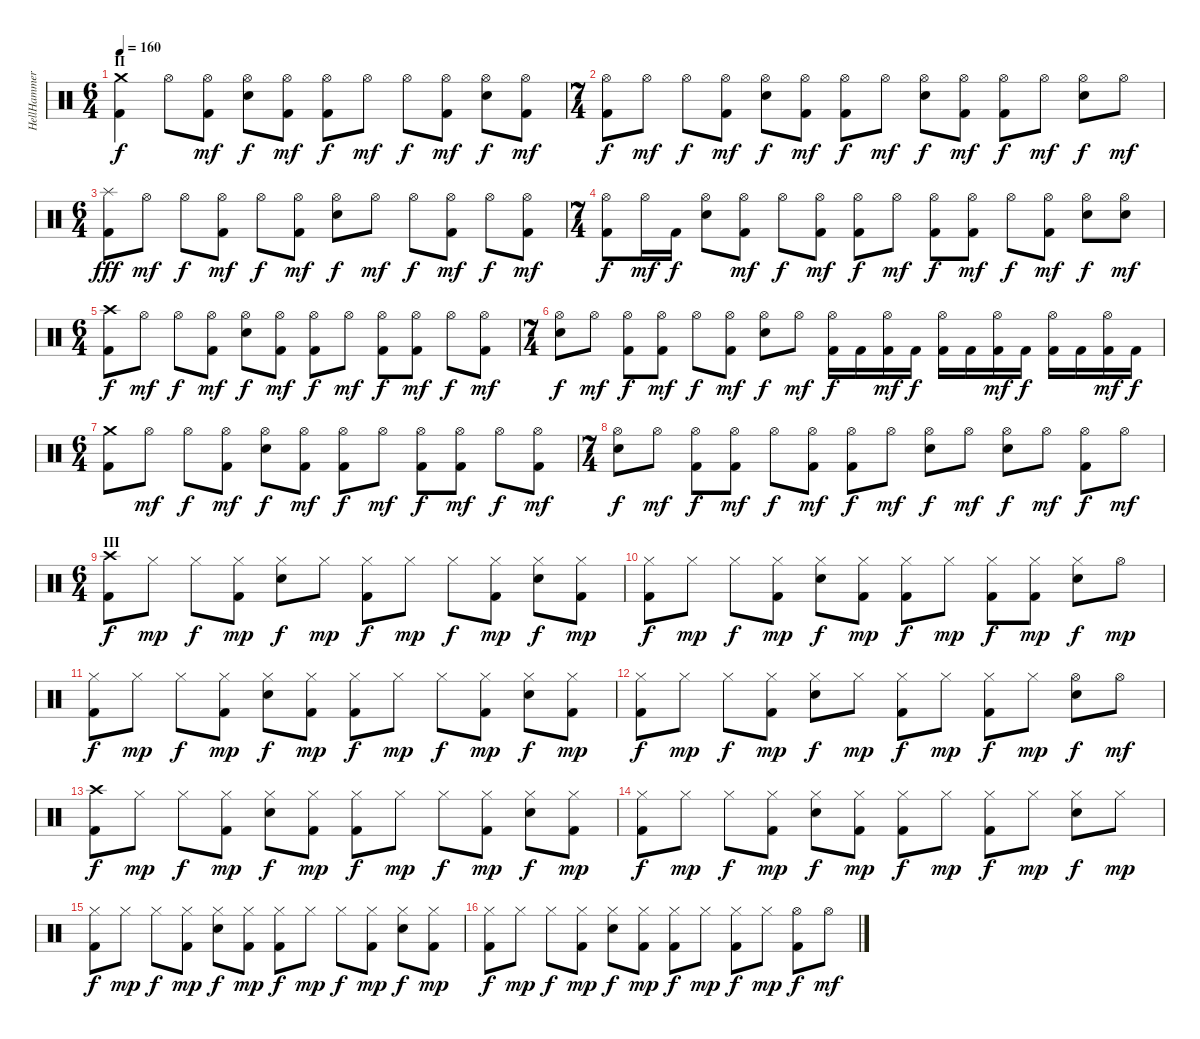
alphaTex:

\track ("HellHammer" "HellHammer") {instrument percussion}
\staff {score}
\articulation defaults
\ts (6 4)
\section ("" "II")
\tempo 160
\clef neutral
\ks c
("Kick (hit) 2" "Crash medium (hit)").4{dy f} "Hi-Hat (open)".8 ("Kick (hit) 2" "Hi-Hat (open)").8{dy mf} ("Electric Snare (hit)" "Hi-Hat (open)").8{dy f} ("Kick (hit) 2" "Hi-Hat (open)").8{dy mf} ("Kick (hit) 2" "Hi-Hat (open)").8{dy f} "Hi-Hat (open)".8{dy mf} "Hi-Hat (open)".8{dy f} ("Kick (hit) 2" "Hi-Hat (open)").8{dy mf} ("Electric Snare (hit)" "Hi-Hat (open)").8{dy f} ("Kick (hit) 2" "Hi-Hat (open)").8{dy mf} |
\ts (7 4)
("Kick (hit) 2" "Hi-Hat (open)").8{dy f} "Hi-Hat (open)".8{dy mf} "Hi-Hat (open)".8{dy f} ("Kick (hit) 2" "Hi-Hat (open)").8{dy mf} ("Electric Snare (hit)" "Hi-Hat (open)").8{dy f} ("Kick (hit) 2" "Hi-Hat (open)").8{dy mf} ("Kick (hit) 2" "Hi-Hat (open)").8{dy f} "Hi-Hat (open)".8{dy mf} ("Electric Snare (hit)" "Hi-Hat (open)").8{dy f} ("Kick (hit) 2" "Hi-Hat (open)").8{dy mf} ("Kick (hit) 2" "Hi-Hat (open)").8{dy f} "Hi-Hat (open)".8{dy mf} ("Electric Snare (hit)" "Hi-Hat (open)").8{dy f} "Hi-Hat (open)".8{dy mf} |
\ts (6 4)
("Kick (hit) 2" "Splash (hit)").8{dy fff} "Hi-Hat (open)".8{dy mf} "Hi-Hat (open)".8{dy f} ("Kick (hit) 2" "Hi-Hat (open)").8{dy mf} "Hi-Hat (open)".8{dy f} ("Kick (hit) 2" "Hi-Hat (open)").8{dy mf} ("Electric Snare (hit)" "Hi-Hat (open)").8{dy f} "Hi-Hat (open)".8{dy mf} "Hi-Hat (open)".8{dy f} ("Kick (hit) 2" "Hi-Hat (open)").8{dy mf} "Hi-Hat (open)".8{dy f} ("Kick (hit) 2" "Hi-Hat (open)").8{dy mf} |
\ts (7 4)
("Kick (hit) 2" "Hi-Hat (open)").8{dy f} "Hi-Hat (open)".16{dy mf} "Kick (hit) 2".16{dy f} ("Electric Snare (hit)" "Hi-Hat (open)").8 ("Kick (hit) 2" "Hi-Hat (open)").8{dy mf} "Hi-Hat (open)".8{dy f} ("Kick (hit) 2" "Hi-Hat (open)").8{dy mf} ("Kick (hit) 2" "Hi-Hat (open)").8{dy f} "Hi-Hat (open)".8{dy mf} ("Kick (hit) 2" "Hi-Hat (open)").8{dy f} ("Kick (hit) 2" "Hi-Hat (open)").8{dy mf} "Hi-Hat (open)".8{dy f} ("Kick (hit) 2" "Hi-Hat (open)").8{dy mf} ("Electric Snare (hit)" "Hi-Hat (open)").8{dy f} ("Electric Snare (hit)" "Hi-Hat (open)").8{dy mf} |
\ts (6 4)
("Kick (hit) 2" "Crash high (hit)").8{dy f} "Hi-Hat (open)".8{dy mf} "Hi-Hat (open)".8{dy f} ("Kick (hit) 2" "Hi-Hat (open)").8{dy mf} ("Electric Snare (hit)" "Hi-Hat (open)").8{dy f} ("Kick (hit) 2" "Hi-Hat (open)").8{dy mf} ("Kick (hit) 2" "Hi-Hat (open)").8{dy f} "Hi-Hat (open)".8{dy mf} ("Kick (hit) 2" "Hi-Hat (open)").8{dy f} ("Kick (hit) 2" "Hi-Hat (open)").8{dy mf} "Hi-Hat (open)".8{dy f} ("Kick (hit) 2" "Hi-Hat (open)").8{dy mf} |
\ts (7 4)
("Electric Snare (hit)" "Hi-Hat (open)").8{dy f} "Hi-Hat (open)".8{dy mf} ("Kick (hit) 2" "Hi-Hat (open)").8{dy f} ("Kick (hit) 2" "Hi-Hat (open)").8{dy mf} "Hi-Hat (open)".8{dy f} ("Kick (hit) 2" "Hi-Hat (open)").8{dy mf} ("Electric Snare (hit)" "Hi-Hat (open)").8{dy f} "Hi-Hat (open)".8{dy mf} ("Kick (hit) 2" "Hi-Hat (open)").16{dy f} "Kick (hit) 2".16 ("Kick (hit) 2" "Hi-Hat (open)").16{dy mf} "Kick (hit) 2".16{dy f} ("Kick (hit) 2" "Hi-Hat (open)").16 "Kick (hit) 2".16 ("Kick (hit) 2" "Hi-Hat (open)").16{dy mf} "Kick (hit) 2".16{dy f} ("Kick (hit) 2" "Hi-Hat (open)").16 "Kick (hit) 2".16 ("Kick (hit) 2" "Hi-Hat (open)").16{dy mf} "Kick (hit) 2".16{dy f} |
\ts (6 4)
("Kick (hit) 2" "Crash medium (hit)").8 "Hi-Hat (open)".8{dy mf} "Hi-Hat (open)".8{dy f} ("Kick (hit) 2" "Hi-Hat (open)").8{dy mf} ("Electric Snare (hit)" "Hi-Hat (open)").8{dy f} ("Kick (hit) 2" "Hi-Hat (open)").8{dy mf} ("Kick (hit) 2" "Hi-Hat (open)").8{dy f} "Hi-Hat (open)".8{dy mf} ("Kick (hit) 2" "Hi-Hat (open)").8{dy f} ("Kick (hit) 2" "Hi-Hat (open)").8{dy mf} "Hi-Hat (open)".8{dy f} ("Kick (hit) 2" "Hi-Hat (open)").8{dy mf} |
\ts (7 4)
("Electric Snare (hit)" "Hi-Hat (open)").8{dy f} "Hi-Hat (open)".8{dy mf} ("Kick (hit) 2" "Hi-Hat (open)").8{dy f} ("Kick (hit) 2" "Hi-Hat (open)").8{dy mf} "Hi-Hat (open)".8{dy f} ("Kick (hit) 2" "Hi-Hat (open)").8{dy mf} ("Kick (hit) 2" "Hi-Hat (open)").8{dy f} "Hi-Hat (open)".8{dy mf} ("Electric Snare (hit)" "Hi-Hat (open)").8{dy f} "Hi-Hat (open)".8{dy mf} ("Electric Snare (hit)" "Hi-Hat (open)").8{dy f} "Hi-Hat (open)".8{dy mf} ("Kick (hit) 2" "Hi-Hat (open)").8{dy f} "Hi-Hat (open)".8{dy mf} |
\ts (6 4)
\section ("" "III")
("Kick (hit) 2" "Crash high (hit)").8{dy f} "Hi-Hat (closed)".8{dy mp} "Hi-Hat (closed)".8{dy f} ("Kick (hit) 2" "Hi-Hat (closed)").8{dy mp} ("Electric Snare (hit)" "Hi-Hat (closed)").8{dy f} "Hi-Hat (closed)".8{dy mp} ("Kick (hit) 2" "Hi-Hat (closed)").8{dy f} "Hi-Hat (closed)".8{dy mp} "Hi-Hat (closed)".8{dy f} ("Kick (hit) 2" "Hi-Hat (closed)").8{dy mp} ("Electric Snare (hit)" "Hi-Hat (closed)").8{dy f} ("Kick (hit) 2" "Hi-Hat (closed)").8{dy mp} |
("Kick (hit) 2" "Hi-Hat (closed)").8{dy f} "Hi-Hat (closed)".8{dy mp} "Hi-Hat (closed)".8{dy f} ("Kick (hit) 2" "Hi-Hat (closed)").8{dy mp} ("Electric Snare (hit)" "Hi-Hat (closed)").8{dy f} ("Kick (hit) 2" "Hi-Hat (closed)").8{dy mp} ("Kick (hit) 2" "Hi-Hat (closed)").8{dy f} "Hi-Hat (closed)".8{dy mp} ("Kick (hit) 2" "Hi-Hat (closed)").8{dy f} ("Kick (hit) 2" "Hi-Hat (closed)").8{dy mp} ("Electric Snare (hit)" "Hi-Hat (closed)").8{dy f} "Hi-Hat (open)".8{dy mp} |
("Kick (hit) 2" "Hi-Hat (closed)").8{dy f} "Hi-Hat (closed)".8{dy mp} "Hi-Hat (closed)".8{dy f} ("Kick (hit) 2" "Hi-Hat (closed)").8{dy mp} ("Electric Snare (hit)" "Hi-Hat (closed)").8{dy f} ("Kick (hit) 2" "Hi-Hat (closed)").8{dy mp} ("Kick (hit) 2" "Hi-Hat (closed)").8{dy f} "Hi-Hat (closed)".8{dy mp} "Hi-Hat (closed)".8{dy f} ("Kick (hit) 2" "Hi-Hat (closed)").8{dy mp} ("Electric Snare (hit)" "Hi-Hat (closed)").8{dy f} ("Kick (hit) 2" "Hi-Hat (closed)").8{dy mp} |
("Kick (hit) 2" "Hi-Hat (closed)").8{dy f} "Hi-Hat (closed)".8{dy mp} "Hi-Hat (closed)".8{dy f} ("Kick (hit) 2" "Hi-Hat (closed)").8{dy mp} ("Electric Snare (hit)" "Hi-Hat (closed)").8{dy f} "Hi-Hat (closed)".8{dy mp} ("Kick (hit) 2" "Hi-Hat (closed)").8{dy f} "Hi-Hat (closed)".8{dy mp} ("Kick (hit) 2" "Hi-Hat (closed)").8{dy f} "Hi-Hat (closed)".8{dy mp} ("Electric Snare (hit)" "Hi-Hat (open)").8{dy f} "Hi-Hat (open)".8{dy mf} |
("Kick (hit) 2" "Crash high (hit)").8{dy f} "Hi-Hat (closed)".8{dy mp} "Hi-Hat (closed)".8{dy f} ("Kick (hit) 2" "Hi-Hat (closed)").8{dy mp} ("Electric Snare (hit)" "Hi-Hat (closed)").8{dy f} ("Kick (hit) 2" "Hi-Hat (closed)").8{dy mp} ("Kick (hit) 2" "Hi-Hat (closed)").8{dy f} "Hi-Hat (closed)".8{dy mp} "Hi-Hat (closed)".8{dy f} ("Kick (hit) 2" "Hi-Hat (closed)").8{dy mp} ("Electric Snare (hit)" "Hi-Hat (closed)").8{dy f} ("Kick (hit) 2" "Hi-Hat (closed)").8{dy mp} |
("Kick (hit) 2" "Hi-Hat (closed)").8{dy f} "Hi-Hat (closed)".8{dy mp} "Hi-Hat (closed)".8{dy f} ("Kick (hit) 2" "Hi-Hat (closed)").8{dy mp} ("Electric Snare (hit)" "Hi-Hat (closed)").8{dy f} ("Kick (hit) 2" "Hi-Hat (closed)").8{dy mp} ("Kick (hit) 2" "Hi-Hat (closed)").8{dy f} "Hi-Hat (closed)".8{dy mp} ("Kick (hit) 2" "Hi-Hat (closed)").8{dy f} "Hi-Hat (closed)".8{dy mp} ("Electric Snare (hit)" "Hi-Hat (closed)").8{dy f} "Hi-Hat (closed)".8{dy mp} |
("Kick (hit) 2" "Hi-Hat (closed)").8{dy f} "Hi-Hat (closed)".8{dy mp} "Hi-Hat (closed)".8{dy f} ("Kick (hit) 2" "Hi-Hat (closed)").8{dy mp} ("Electric Snare (hit)" "Hi-Hat (closed)").8{dy f} ("Kick (hit) 2" "Hi-Hat (closed)").8{dy mp} ("Kick (hit) 2" "Hi-Hat (closed)").8{dy f} "Hi-Hat (closed)".8{dy mp} "Hi-Hat (closed)".8{dy f} ("Kick (hit) 2" "Hi-Hat (closed)").8{dy mp} ("Electric Snare (hit)" "Hi-Hat (closed)").8{dy f} ("Kick (hit) 2" "Hi-Hat (closed)").8{dy mp} |
("Kick (hit) 2" "Hi-Hat (closed)").8{dy f} "Hi-Hat (closed)".8{dy mp} "Hi-Hat (closed)".8{dy f} ("Kick (hit) 2" "Hi-Hat (closed)").8{dy mp} ("Electric Snare (hit)" "Hi-Hat (closed)").8{dy f} ("Kick (hit) 2" "Hi-Hat (closed)").8{dy mp} ("Kick (hit) 2" "Hi-Hat (closed)").8{dy f} "Hi-Hat (closed)".8{dy mp} ("Kick (hit) 2" "Hi-Hat (closed)").8{dy f} "Hi-Hat (closed)".8{dy mp} ("Kick (hit) 2" "Hi-Hat (open)").8{dy f} "Hi-Hat (open)".8{dy mf}
